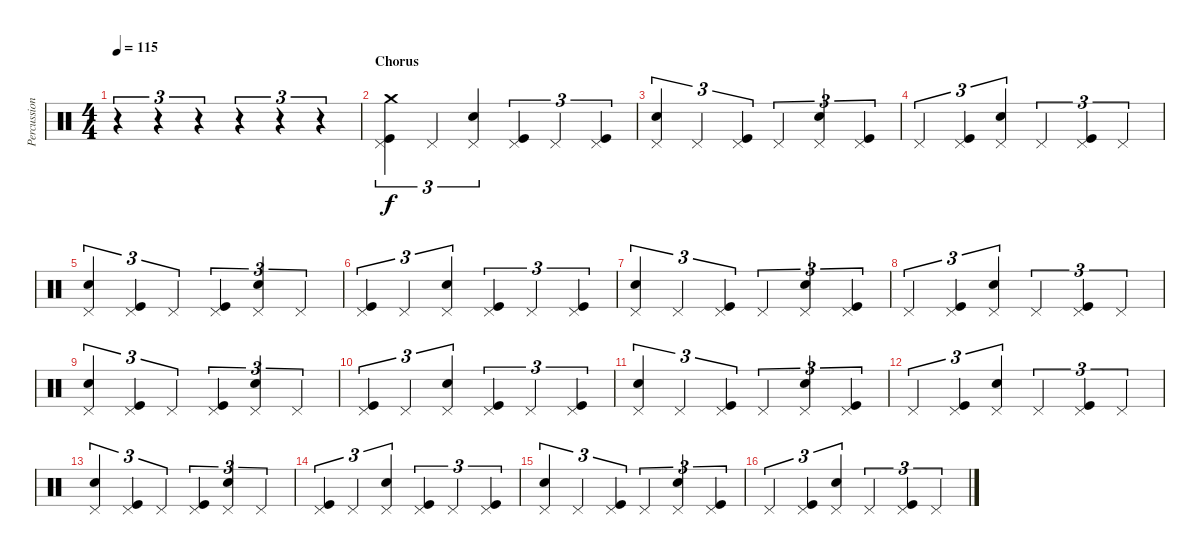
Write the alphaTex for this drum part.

\track ("Percussion" "Percussion") {instrument percussion}
\staff {score}
\articulation defaults
\ts (4 4)
\tempo 115
\clef neutral
\ks c
r.4{tu (3 2) dy f} r.4{tu (3 2)} r.4{tu (3 2)} r.4{tu (3 2)} r.4{tu (3 2)} r.4{tu (3 2)} |
\section ("" "Chorus")
("Crash medium (hit)" "Pedal Hi-Hat (hit)" "Kick (hit)").4{tu (3 2)} "Pedal Hi-Hat (hit)".4{tu (3 2)} ("Pedal Hi-Hat (hit)" "Electric Snare (hit)").4{tu (3 2)} ("Pedal Hi-Hat (hit)" "Kick (hit)").4{tu (3 2)} "Pedal Hi-Hat (hit)".4{tu (3 2)} ("Pedal Hi-Hat (hit)" "Kick (hit)").4{tu (3 2)} |
("Pedal Hi-Hat (hit)" "Electric Snare (hit)").4{tu (3 2)} "Pedal Hi-Hat (hit)".4{tu (3 2)} ("Pedal Hi-Hat (hit)" "Kick (hit)").4{tu (3 2)} "Pedal Hi-Hat (hit)".4{tu (3 2)} ("Pedal Hi-Hat (hit)" "Electric Snare (hit)").4{tu (3 2)} ("Pedal Hi-Hat (hit)" "Kick (hit)").4{tu (3 2)} |
"Pedal Hi-Hat (hit)".4{tu (3 2)} ("Pedal Hi-Hat (hit)" "Kick (hit)").4{tu (3 2)} ("Pedal Hi-Hat (hit)" "Electric Snare (hit)").4{tu (3 2)} "Pedal Hi-Hat (hit)".4{tu (3 2)} ("Pedal Hi-Hat (hit)" "Kick (hit)").4{tu (3 2)} "Pedal Hi-Hat (hit)".4{tu (3 2)} |
("Pedal Hi-Hat (hit)" "Electric Snare (hit)").4{tu (3 2)} ("Pedal Hi-Hat (hit)" "Kick (hit)").4{tu (3 2)} "Pedal Hi-Hat (hit)".4{tu (3 2)} ("Pedal Hi-Hat (hit)" "Kick (hit)").4{tu (3 2)} ("Pedal Hi-Hat (hit)" "Electric Snare (hit)").4{tu (3 2)} "Pedal Hi-Hat (hit)".4{tu (3 2)} |
("Pedal Hi-Hat (hit)" "Kick (hit)").4{tu (3 2)} "Pedal Hi-Hat (hit)".4{tu (3 2)} ("Pedal Hi-Hat (hit)" "Electric Snare (hit)").4{tu (3 2)} ("Pedal Hi-Hat (hit)" "Kick (hit)").4{tu (3 2)} "Pedal Hi-Hat (hit)".4{tu (3 2)} ("Pedal Hi-Hat (hit)" "Kick (hit)").4{tu (3 2)} |
("Pedal Hi-Hat (hit)" "Electric Snare (hit)").4{tu (3 2)} "Pedal Hi-Hat (hit)".4{tu (3 2)} ("Pedal Hi-Hat (hit)" "Kick (hit)").4{tu (3 2)} "Pedal Hi-Hat (hit)".4{tu (3 2)} ("Pedal Hi-Hat (hit)" "Electric Snare (hit)").4{tu (3 2)} ("Pedal Hi-Hat (hit)" "Kick (hit)").4{tu (3 2)} |
"Pedal Hi-Hat (hit)".4{tu (3 2)} ("Pedal Hi-Hat (hit)" "Kick (hit)").4{tu (3 2)} ("Pedal Hi-Hat (hit)" "Electric Snare (hit)").4{tu (3 2)} "Pedal Hi-Hat (hit)".4{tu (3 2)} ("Pedal Hi-Hat (hit)" "Kick (hit)").4{tu (3 2)} "Pedal Hi-Hat (hit)".4{tu (3 2)} |
("Pedal Hi-Hat (hit)" "Electric Snare (hit)").4{tu (3 2)} ("Pedal Hi-Hat (hit)" "Kick (hit)").4{tu (3 2)} "Pedal Hi-Hat (hit)".4{tu (3 2)} ("Pedal Hi-Hat (hit)" "Kick (hit)").4{tu (3 2)} ("Pedal Hi-Hat (hit)" "Electric Snare (hit)").4{tu (3 2)} "Pedal Hi-Hat (hit)".4{tu (3 2)} |
("Pedal Hi-Hat (hit)" "Kick (hit)").4{tu (3 2)} "Pedal Hi-Hat (hit)".4{tu (3 2)} ("Pedal Hi-Hat (hit)" "Electric Snare (hit)").4{tu (3 2)} ("Pedal Hi-Hat (hit)" "Kick (hit)").4{tu (3 2)} "Pedal Hi-Hat (hit)".4{tu (3 2)} ("Pedal Hi-Hat (hit)" "Kick (hit)").4{tu (3 2)} |
("Pedal Hi-Hat (hit)" "Electric Snare (hit)").4{tu (3 2)} "Pedal Hi-Hat (hit)".4{tu (3 2)} ("Pedal Hi-Hat (hit)" "Kick (hit)").4{tu (3 2)} "Pedal Hi-Hat (hit)".4{tu (3 2)} ("Pedal Hi-Hat (hit)" "Electric Snare (hit)").4{tu (3 2)} ("Pedal Hi-Hat (hit)" "Kick (hit)").4{tu (3 2)} |
"Pedal Hi-Hat (hit)".4{tu (3 2)} ("Pedal Hi-Hat (hit)" "Kick (hit)").4{tu (3 2)} ("Pedal Hi-Hat (hit)" "Electric Snare (hit)").4{tu (3 2)} "Pedal Hi-Hat (hit)".4{tu (3 2)} ("Pedal Hi-Hat (hit)" "Kick (hit)").4{tu (3 2)} "Pedal Hi-Hat (hit)".4{tu (3 2)} |
("Pedal Hi-Hat (hit)" "Electric Snare (hit)").4{tu (3 2)} ("Pedal Hi-Hat (hit)" "Kick (hit)").4{tu (3 2)} "Pedal Hi-Hat (hit)".4{tu (3 2)} ("Pedal Hi-Hat (hit)" "Kick (hit)").4{tu (3 2)} ("Pedal Hi-Hat (hit)" "Electric Snare (hit)").4{tu (3 2)} "Pedal Hi-Hat (hit)".4{tu (3 2)} |
("Pedal Hi-Hat (hit)" "Kick (hit)").4{tu (3 2)} "Pedal Hi-Hat (hit)".4{tu (3 2)} ("Pedal Hi-Hat (hit)" "Electric Snare (hit)").4{tu (3 2)} ("Pedal Hi-Hat (hit)" "Kick (hit)").4{tu (3 2)} "Pedal Hi-Hat (hit)".4{tu (3 2)} ("Pedal Hi-Hat (hit)" "Kick (hit)").4{tu (3 2)} |
("Pedal Hi-Hat (hit)" "Electric Snare (hit)").4{tu (3 2)} "Pedal Hi-Hat (hit)".4{tu (3 2)} ("Pedal Hi-Hat (hit)" "Kick (hit)").4{tu (3 2)} "Pedal Hi-Hat (hit)".4{tu (3 2)} ("Pedal Hi-Hat (hit)" "Electric Snare (hit)").4{tu (3 2)} ("Pedal Hi-Hat (hit)" "Kick (hit)").4{tu (3 2)} |
"Pedal Hi-Hat (hit)".4{tu (3 2)} ("Pedal Hi-Hat (hit)" "Kick (hit)").4{tu (3 2)} ("Pedal Hi-Hat (hit)" "Electric Snare (hit)").4{tu (3 2)} "Pedal Hi-Hat (hit)".4{tu (3 2)} ("Pedal Hi-Hat (hit)" "Kick (hit)").4{tu (3 2)} "Pedal Hi-Hat (hit)".4{tu (3 2)}
